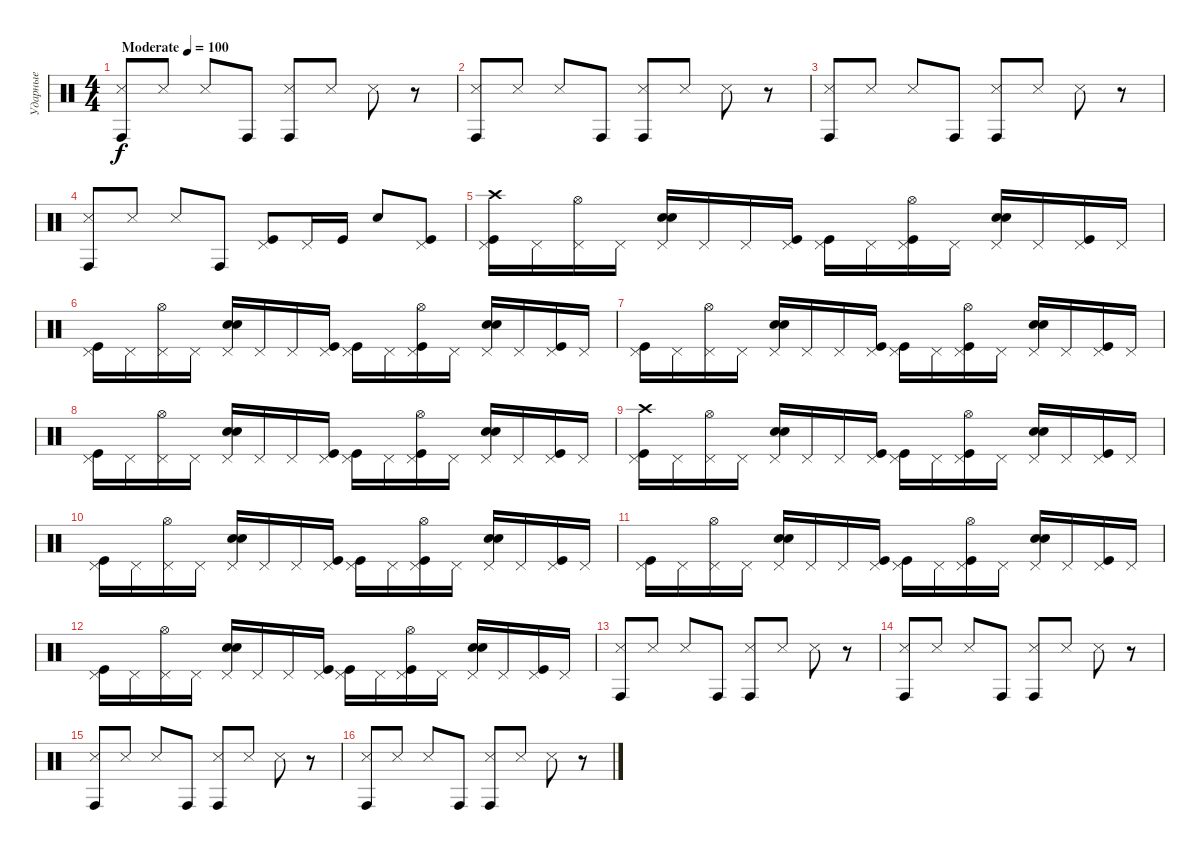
\track ("Ударные" "Ударные") {instrument percussion}
\staff {score}
\articulation defaults
\ts (4 4)
\tempo (100 "Moderate")
\clef neutral
\ks c
("Conga high (hit)" "Metronome (hit)").8{dy f} "Metronome (hit)".8 "Metronome (hit)".8 "Conga high (hit)".8 ("Conga high (hit)" "Metronome (hit)").8 "Metronome (hit)".8 "Metronome (hit)".8 r.8 |
("Conga high (hit)" "Metronome (hit)").8 "Metronome (hit)".8 "Metronome (hit)".8 "Conga high (hit)".8 ("Conga high (hit)" "Metronome (hit)").8 "Metronome (hit)".8 "Metronome (hit)".8 r.8 |
("Conga high (hit)" "Metronome (hit)").8 "Metronome (hit)".8 "Metronome (hit)".8 "Conga high (hit)".8 ("Conga high (hit)" "Metronome (hit)").8 "Metronome (hit)".8 "Metronome (hit)".8 r.8 |
("Conga high (hit)" "Metronome (hit)").8 "Metronome (hit)".8 "Metronome (hit)".8 "Conga high (hit)".8 ("Kick (hit)" "Pedal Hi-Hat (hit)").8 "Pedal Hi-Hat (hit)".16 "Kick (hit)".16 "Electric Snare (hit)".8 ("Kick (hit)" "Pedal Hi-Hat (hit)").8 |
("Kick (hit)" "Pedal Hi-Hat (hit)" "Crash high (hit)").16 "Pedal Hi-Hat (hit)".16 ("Pedal Hi-Hat (hit)" "Hi-Hat (open)").16 "Pedal Hi-Hat (hit)".16 ("Pedal Hi-Hat (hit)" "Electric Snare (hit)" "Hand Clap (hit)").16 "Pedal Hi-Hat (hit)".16 "Pedal Hi-Hat (hit)".16 ("Kick (hit)" "Pedal Hi-Hat (hit)").16 ("Kick (hit)" "Pedal Hi-Hat (hit)").16 "Pedal Hi-Hat (hit)".16 ("Kick (hit)" "Pedal Hi-Hat (hit)" "Hi-Hat (open)").16 "Pedal Hi-Hat (hit)".16 ("Pedal Hi-Hat (hit)" "Electric Snare (hit)" "Hand Clap (hit)").16 "Pedal Hi-Hat (hit)".16 ("Kick (hit)" "Pedal Hi-Hat (hit)").16 "Pedal Hi-Hat (hit)".16 |
("Kick (hit)" "Pedal Hi-Hat (hit)").16 "Pedal Hi-Hat (hit)".16 ("Pedal Hi-Hat (hit)" "Hi-Hat (open)").16 "Pedal Hi-Hat (hit)".16 ("Pedal Hi-Hat (hit)" "Electric Snare (hit)" "Hand Clap (hit)").16 "Pedal Hi-Hat (hit)".16 "Pedal Hi-Hat (hit)".16 ("Kick (hit)" "Pedal Hi-Hat (hit)").16 ("Kick (hit)" "Pedal Hi-Hat (hit)").16 "Pedal Hi-Hat (hit)".16 ("Kick (hit)" "Pedal Hi-Hat (hit)" "Hi-Hat (open)").16 "Pedal Hi-Hat (hit)".16 ("Pedal Hi-Hat (hit)" "Electric Snare (hit)" "Hand Clap (hit)").16 "Pedal Hi-Hat (hit)".16 ("Kick (hit)" "Pedal Hi-Hat (hit)").16 "Pedal Hi-Hat (hit)".16 |
("Kick (hit)" "Pedal Hi-Hat (hit)").16 "Pedal Hi-Hat (hit)".16 ("Pedal Hi-Hat (hit)" "Hi-Hat (open)").16 "Pedal Hi-Hat (hit)".16 ("Pedal Hi-Hat (hit)" "Electric Snare (hit)" "Hand Clap (hit)").16 "Pedal Hi-Hat (hit)".16 "Pedal Hi-Hat (hit)".16 ("Kick (hit)" "Pedal Hi-Hat (hit)").16 ("Kick (hit)" "Pedal Hi-Hat (hit)").16 "Pedal Hi-Hat (hit)".16 ("Kick (hit)" "Pedal Hi-Hat (hit)" "Hi-Hat (open)").16 "Pedal Hi-Hat (hit)".16 ("Pedal Hi-Hat (hit)" "Electric Snare (hit)" "Hand Clap (hit)").16 "Pedal Hi-Hat (hit)".16 ("Kick (hit)" "Pedal Hi-Hat (hit)").16 "Pedal Hi-Hat (hit)".16 |
("Kick (hit)" "Pedal Hi-Hat (hit)").16 "Pedal Hi-Hat (hit)".16 ("Pedal Hi-Hat (hit)" "Hi-Hat (open)").16 "Pedal Hi-Hat (hit)".16 ("Pedal Hi-Hat (hit)" "Electric Snare (hit)" "Hand Clap (hit)").16 "Pedal Hi-Hat (hit)".16 "Pedal Hi-Hat (hit)".16 ("Kick (hit)" "Pedal Hi-Hat (hit)").16 ("Kick (hit)" "Pedal Hi-Hat (hit)").16 "Pedal Hi-Hat (hit)".16 ("Kick (hit)" "Pedal Hi-Hat (hit)" "Hi-Hat (open)").16 "Pedal Hi-Hat (hit)".16 ("Pedal Hi-Hat (hit)" "Electric Snare (hit)" "Hand Clap (hit)").16 "Pedal Hi-Hat (hit)".16 ("Kick (hit)" "Pedal Hi-Hat (hit)").16 "Pedal Hi-Hat (hit)".16 |
("Kick (hit)" "Pedal Hi-Hat (hit)" "Crash high (hit)").16 "Pedal Hi-Hat (hit)".16 ("Pedal Hi-Hat (hit)" "Hi-Hat (open)").16 "Pedal Hi-Hat (hit)".16 ("Pedal Hi-Hat (hit)" "Electric Snare (hit)" "Hand Clap (hit)").16 "Pedal Hi-Hat (hit)".16 "Pedal Hi-Hat (hit)".16 ("Kick (hit)" "Pedal Hi-Hat (hit)").16 ("Kick (hit)" "Pedal Hi-Hat (hit)").16 "Pedal Hi-Hat (hit)".16 ("Kick (hit)" "Pedal Hi-Hat (hit)" "Hi-Hat (open)").16 "Pedal Hi-Hat (hit)".16 ("Pedal Hi-Hat (hit)" "Electric Snare (hit)" "Hand Clap (hit)").16 "Pedal Hi-Hat (hit)".16 ("Kick (hit)" "Pedal Hi-Hat (hit)").16 "Pedal Hi-Hat (hit)".16 |
("Kick (hit)" "Pedal Hi-Hat (hit)").16 "Pedal Hi-Hat (hit)".16 ("Pedal Hi-Hat (hit)" "Hi-Hat (open)").16 "Pedal Hi-Hat (hit)".16 ("Pedal Hi-Hat (hit)" "Electric Snare (hit)" "Hand Clap (hit)").16 "Pedal Hi-Hat (hit)".16 "Pedal Hi-Hat (hit)".16 ("Kick (hit)" "Pedal Hi-Hat (hit)").16 ("Kick (hit)" "Pedal Hi-Hat (hit)").16 "Pedal Hi-Hat (hit)".16 ("Kick (hit)" "Pedal Hi-Hat (hit)" "Hi-Hat (open)").16 "Pedal Hi-Hat (hit)".16 ("Pedal Hi-Hat (hit)" "Electric Snare (hit)" "Hand Clap (hit)").16 "Pedal Hi-Hat (hit)".16 ("Kick (hit)" "Pedal Hi-Hat (hit)").16 "Pedal Hi-Hat (hit)".16 |
("Kick (hit)" "Pedal Hi-Hat (hit)").16 "Pedal Hi-Hat (hit)".16 ("Pedal Hi-Hat (hit)" "Hi-Hat (open)").16 "Pedal Hi-Hat (hit)".16 ("Pedal Hi-Hat (hit)" "Electric Snare (hit)" "Hand Clap (hit)").16 "Pedal Hi-Hat (hit)".16 "Pedal Hi-Hat (hit)".16 ("Kick (hit)" "Pedal Hi-Hat (hit)").16 ("Kick (hit)" "Pedal Hi-Hat (hit)").16 "Pedal Hi-Hat (hit)".16 ("Kick (hit)" "Pedal Hi-Hat (hit)" "Hi-Hat (open)").16 "Pedal Hi-Hat (hit)".16 ("Pedal Hi-Hat (hit)" "Electric Snare (hit)" "Hand Clap (hit)").16 "Pedal Hi-Hat (hit)".16 ("Kick (hit)" "Pedal Hi-Hat (hit)").16 "Pedal Hi-Hat (hit)".16 |
("Kick (hit)" "Pedal Hi-Hat (hit)").16 "Pedal Hi-Hat (hit)".16 ("Pedal Hi-Hat (hit)" "Hi-Hat (open)").16 "Pedal Hi-Hat (hit)".16 ("Pedal Hi-Hat (hit)" "Electric Snare (hit)" "Hand Clap (hit)").16 "Pedal Hi-Hat (hit)".16 "Pedal Hi-Hat (hit)".16 ("Kick (hit)" "Pedal Hi-Hat (hit)").16 ("Kick (hit)" "Pedal Hi-Hat (hit)").16 "Pedal Hi-Hat (hit)".16 ("Kick (hit)" "Pedal Hi-Hat (hit)" "Hi-Hat (open)").16 "Pedal Hi-Hat (hit)".16 ("Pedal Hi-Hat (hit)" "Electric Snare (hit)" "Hand Clap (hit)").16 "Pedal Hi-Hat (hit)".16 ("Kick (hit)" "Pedal Hi-Hat (hit)").16 "Pedal Hi-Hat (hit)".16 |
("Conga high (hit)" "Metronome (hit)").8 "Metronome (hit)".8 "Metronome (hit)".8 "Conga high (hit)".8 ("Conga high (hit)" "Metronome (hit)").8 "Metronome (hit)".8 "Metronome (hit)".8 r.8 |
("Conga high (hit)" "Metronome (hit)").8 "Metronome (hit)".8 "Metronome (hit)".8 "Conga high (hit)".8 ("Conga high (hit)" "Metronome (hit)").8 "Metronome (hit)".8 "Metronome (hit)".8 r.8 |
("Conga high (hit)" "Metronome (hit)").8 "Metronome (hit)".8 "Metronome (hit)".8 "Conga high (hit)".8 ("Conga high (hit)" "Metronome (hit)").8 "Metronome (hit)".8 "Metronome (hit)".8 r.8 |
("Conga high (hit)" "Metronome (hit)").8 "Metronome (hit)".8 "Metronome (hit)".8 "Conga high (hit)".8 ("Conga high (hit)" "Metronome (hit)").8 "Metronome (hit)".8 "Metronome (hit)".8 r.8
